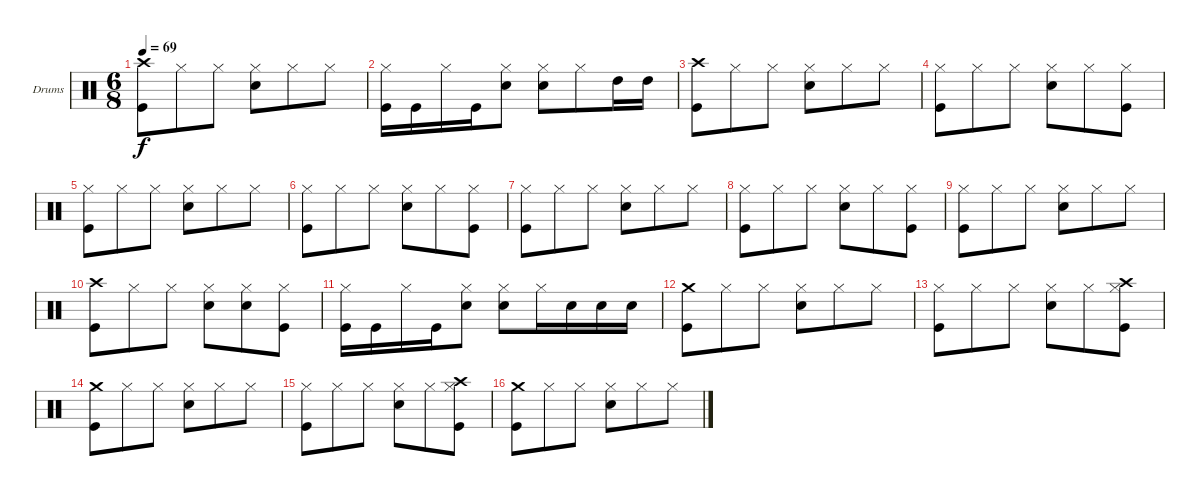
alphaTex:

\defaultSystemsLayout 4
\bracketExtendMode groupsimilarinstruments
\firstSystemTrackNameOrientation horizontal
\otherSystemsTrackNameOrientation horizontal
\track ("Удар" "Drums") {instrument percussion}
\staff {score}
\articulation defaults
\ts (6 8)
\tempo 69
\clef neutral
\ks c
("Crash high (hit)" "Kick (hit)").8{dy f} "Hi-Hat (closed)".8 "Hi-Hat (closed)".8 ("Hi-Hat (closed)" "Snare (hit) 2").8 "Hi-Hat (closed)".8 "Hi-Hat (closed)".8 |
("Hi-Hat (closed)" "Kick (hit)").16 "Kick (hit)".16 "Hi-Hat (closed)".16 "Kick (hit)".16 ("Hi-Hat (closed)" "Snare (hit) 2").8 ("Hi-Hat (closed)" "Snare (hit) 2").8 "Hi-Hat (closed)".8 "High Tom (hit)".16 "High Tom (hit)".16 |
("Crash high (hit)" "Kick (hit)").8 "Hi-Hat (closed)".8 "Hi-Hat (closed)".8 ("Hi-Hat (closed)" "Snare (hit) 2").8 "Hi-Hat (closed)".8 "Hi-Hat (closed)".8 |
("Hi-Hat (closed)" "Kick (hit)").8 "Hi-Hat (closed)".8 "Hi-Hat (closed)".8 ("Hi-Hat (closed)" "Snare (hit) 2").8 "Hi-Hat (closed)".8 ("Hi-Hat (closed)" "Kick (hit)").8 |
("Hi-Hat (closed)" "Kick (hit)").8 "Hi-Hat (closed)".8 "Hi-Hat (closed)".8 ("Hi-Hat (closed)" "Snare (hit) 2").8 "Hi-Hat (closed)".8 "Hi-Hat (closed)".8 |
("Hi-Hat (closed)" "Kick (hit)").8 "Hi-Hat (closed)".8 "Hi-Hat (closed)".8 ("Hi-Hat (closed)" "Snare (hit) 2").8 "Hi-Hat (closed)".8 ("Hi-Hat (closed)" "Kick (hit)").8 |
("Hi-Hat (closed)" "Kick (hit)").8 "Hi-Hat (closed)".8 "Hi-Hat (closed)".8 ("Hi-Hat (closed)" "Snare (hit) 2").8 "Hi-Hat (closed)".8 "Hi-Hat (closed)".8 |
("Hi-Hat (closed)" "Kick (hit)").8 "Hi-Hat (closed)".8 "Hi-Hat (closed)".8 ("Hi-Hat (closed)" "Snare (hit) 2").8 "Hi-Hat (closed)".8 ("Hi-Hat (closed)" "Kick (hit)").8 |
("Hi-Hat (closed)" "Kick (hit)").8 "Hi-Hat (closed)".8 "Hi-Hat (closed)".8 ("Hi-Hat (closed)" "Snare (hit) 2").8 "Hi-Hat (closed)".8 "Hi-Hat (closed)".8 |
("Crash high (hit)" "Kick (hit)").8 "Hi-Hat (closed)".8 "Hi-Hat (closed)".8 ("Hi-Hat (closed)" "Snare (hit) 2").8 ("Hi-Hat (closed)" "Snare (hit) 2").8 ("Hi-Hat (closed)" "Kick (hit)").8 |
("Hi-Hat (closed)" "Kick (hit)").16 "Kick (hit)".16 "Hi-Hat (closed)".16 "Kick (hit)".16 ("Hi-Hat (closed)" "Snare (hit) 2").8 ("Hi-Hat (closed)" "Snare (hit) 2").8 "Hi-Hat (closed)".16 "Snare (hit) 2".16 "Snare (hit) 2".16 "Snare (hit) 2".16 |
("Crash medium (hit)" "Kick (hit)").8 "Hi-Hat (closed)".8 "Hi-Hat (closed)".8 ("Hi-Hat (closed)" "Snare (hit) 2").8 "Hi-Hat (closed)".8 "Hi-Hat (closed)".8 |
("Hi-Hat (closed)" "Kick (hit)").8 "Hi-Hat (closed)".8 "Hi-Hat (closed)".8 ("Hi-Hat (closed)" "Snare (hit) 2").8 "Hi-Hat (closed)".8 ("Crash high (hit)" "Hi-Hat (closed)" "Kick (hit)").8 |
("Crash medium (hit)" "Kick (hit)").8 "Hi-Hat (closed)".8 "Hi-Hat (closed)".8 ("Hi-Hat (closed)" "Snare (hit) 2").8 "Hi-Hat (closed)".8 "Hi-Hat (closed)".8 |
("Hi-Hat (closed)" "Kick (hit)").8 "Hi-Hat (closed)".8 "Hi-Hat (closed)".8 ("Hi-Hat (closed)" "Snare (hit) 2").8 "Hi-Hat (closed)".8 ("Crash high (hit)" "Hi-Hat (closed)" "Kick (hit)").8 |
("Crash medium (hit)" "Kick (hit)").8 "Hi-Hat (closed)".8 "Hi-Hat (closed)".8 ("Hi-Hat (closed)" "Snare (hit) 2").8 "Hi-Hat (closed)".8 "Hi-Hat (closed)".8
